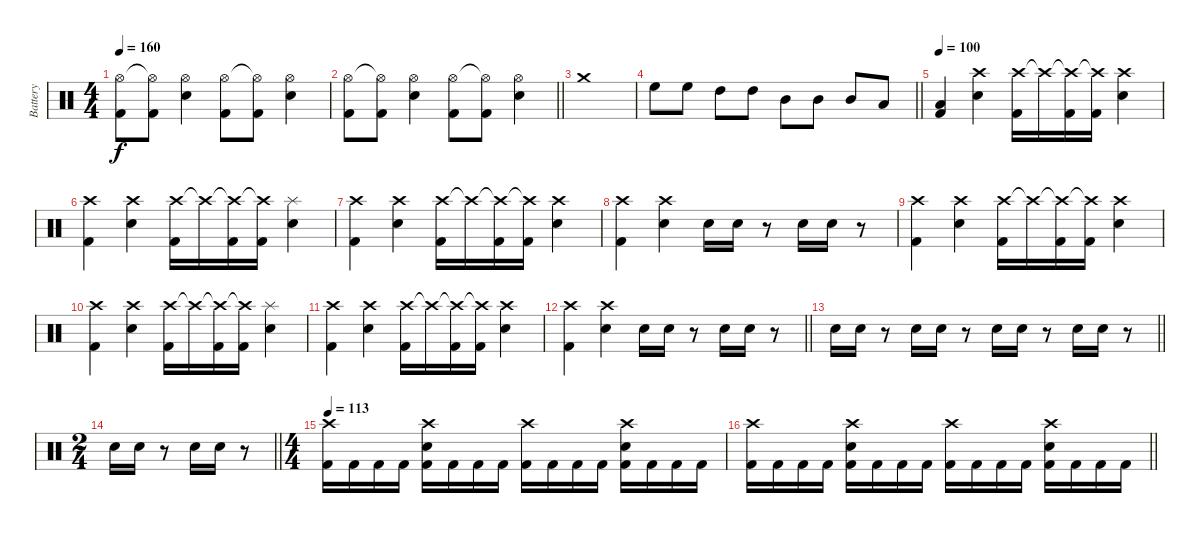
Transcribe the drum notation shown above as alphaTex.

\track ("Battery" "Battery") {instrument percussion}
\staff {score}
\articulation defaults
\ts (4 4)
\tempo 160
\clef neutral
\ks c
("Hi-Hat (open)" "Kick (hit) 2").8{dy f} ("Hi-Hat (open)"{t} "Kick (hit) 2").8 ("Hi-Hat (open)" "Snare (hit) 2").4 ("Hi-Hat (open)" "Kick (hit) 2").8 ("Hi-Hat (open)"{t} "Kick (hit) 2").8 ("Hi-Hat (open)" "Snare (hit) 2").4 |
\barLineRight lightlight
("Hi-Hat (open)" "Kick (hit) 2").8 ("Hi-Hat (open)"{t} "Kick (hit) 2").8 ("Hi-Hat (open)" "Snare (hit) 2").4 ("Hi-Hat (open)" "Kick (hit) 2").8 ("Hi-Hat (open)"{t} "Kick (hit) 2").8 ("Hi-Hat (open)" "Snare (hit) 2").4 |
"Crash medium (hit)".1 |
\barLineRight lightlight "High Floor Tom (hit)".8 "High Floor Tom (hit)".8 "High Tom (hit)".8 "High Tom (hit)".8 "Mid Tom (hit)".8 "Mid Tom (hit)".8 "Mid Tom (hit)".8 "Low Tom (hit)".8
|
\tempo 100
("Low Tom (hit)" "Kick (hit) 2").4 ("Crash high (hit)" "Snare (hit) 2").4 ("Crash high (hit)" "Kick (hit) 2").16 "Crash high (hit)"{t}.16 ("Crash high (hit)"{t} "Kick (hit) 2").16 ("Crash high (hit)"{t} "Kick (hit) 2").16 ("Crash high (hit)" "Snare (hit) 2").4 |
("Crash high (hit)" "Kick (hit) 2").4 ("Crash high (hit)" "Snare (hit) 2").4 ("Crash high (hit)" "Kick (hit) 2").16 "Crash high (hit)"{t}.16 ("Crash high (hit)"{t} "Kick (hit) 2").16 ("Crash high (hit)"{t} "Kick (hit) 2").16 ("Splash (hit)" "Snare (hit) 2").4 |
("Crash high (hit)" "Kick (hit) 2").4 ("Crash high (hit)" "Snare (hit) 2").4 ("Crash high (hit)" "Kick (hit) 2").16 "Crash high (hit)"{t}.16 ("Crash high (hit)"{t} "Kick (hit) 2").16 ("Crash high (hit)"{t} "Kick (hit) 2").16 ("Crash high (hit)" "Snare (hit) 2").4 |
("Crash high (hit)" "Kick (hit) 2").4 ("Crash high (hit)" "Snare (hit) 2").4 "Snare (hit) 2".16 "Snare (hit) 2".16 r.8 "Snare (hit) 2".16 "Snare (hit) 2".16 r.8 |
("Crash high (hit)" "Kick (hit) 2").4 ("Crash high (hit)" "Snare (hit) 2").4 ("Crash high (hit)" "Kick (hit) 2").16 "Crash high (hit)"{t}.16 ("Crash high (hit)"{t} "Kick (hit) 2").16 ("Crash high (hit)"{t} "Kick (hit) 2").16 ("Crash high (hit)" "Snare (hit) 2").4 |
("Crash high (hit)" "Kick (hit) 2").4 ("Crash high (hit)" "Snare (hit) 2").4 ("Crash high (hit)" "Kick (hit) 2").16 "Crash high (hit)"{t}.16 ("Crash high (hit)"{t} "Kick (hit) 2").16 ("Crash high (hit)"{t} "Kick (hit) 2").16 ("Splash (hit)" "Snare (hit) 2").4 |
("Crash high (hit)" "Kick (hit) 2").4 ("Crash high (hit)" "Snare (hit) 2").4 ("Crash high (hit)" "Kick (hit) 2").16 "Crash high (hit)"{t}.16 ("Crash high (hit)"{t} "Kick (hit) 2").16 ("Crash high (hit)"{t} "Kick (hit) 2").16 ("Crash high (hit)" "Snare (hit) 2").4 |
\barLineRight lightlight
("Crash high (hit)" "Kick (hit) 2").4 ("Crash high (hit)" "Snare (hit) 2").4 "Snare (hit) 2".16 "Snare (hit) 2".16 r.8 "Snare (hit) 2".16 "Snare (hit) 2".16 r.8 |
\barLineRight lightlight "Snare (hit) 2".16 "Snare (hit) 2".16
r.8 "Snare (hit) 2".16 "Snare (hit) 2".16 r.8 "Snare (hit) 2".16 "Snare (hit) 2".16 r.8 "Snare (hit) 2".16 "Snare (hit) 2".16 r.8 |
\ts (2 4)
\barLineRight lightlight "Snare (hit) 2".16 "Snare (hit) 2".16
r.8 "Snare (hit) 2".16 "Snare (hit) 2".16 r.8 |
\ts (4 4)
\tempo 113
("Crash high (hit)" "Kick (hit) 2").16 "Kick (hit) 2".16 "Kick (hit) 2".16 "Kick (hit) 2".16 ("Crash high (hit)" "Snare (hit) 2" "Kick (hit) 2").16 "Kick (hit) 2".16 "Kick (hit) 2".16 "Kick (hit) 2".16 ("Crash high (hit)" "Kick (hit) 2").16 "Kick (hit) 2".16 "Kick (hit) 2".16 "Kick (hit) 2".16 ("Crash high (hit)" "Snare (hit) 2" "Kick (hit) 2").16 "Kick (hit) 2".16 "Kick (hit) 2".16 "Kick (hit) 2".16 |
\barLineRight lightlight
("Crash high (hit)" "Kick (hit) 2").16 "Kick (hit) 2".16 "Kick (hit) 2".16 "Kick (hit) 2".16 ("Crash high (hit)" "Snare (hit) 2" "Kick (hit) 2").16 "Kick (hit) 2".16 "Kick (hit) 2".16 "Kick (hit) 2".16 ("Crash high (hit)" "Kick (hit) 2").16 "Kick (hit) 2".16 "Kick (hit) 2".16 "Kick (hit) 2".16 ("Crash high (hit)" "Snare (hit) 2" "Kick (hit) 2").16 "Kick (hit) 2".16 "Kick (hit) 2".16 "Kick (hit) 2".16
